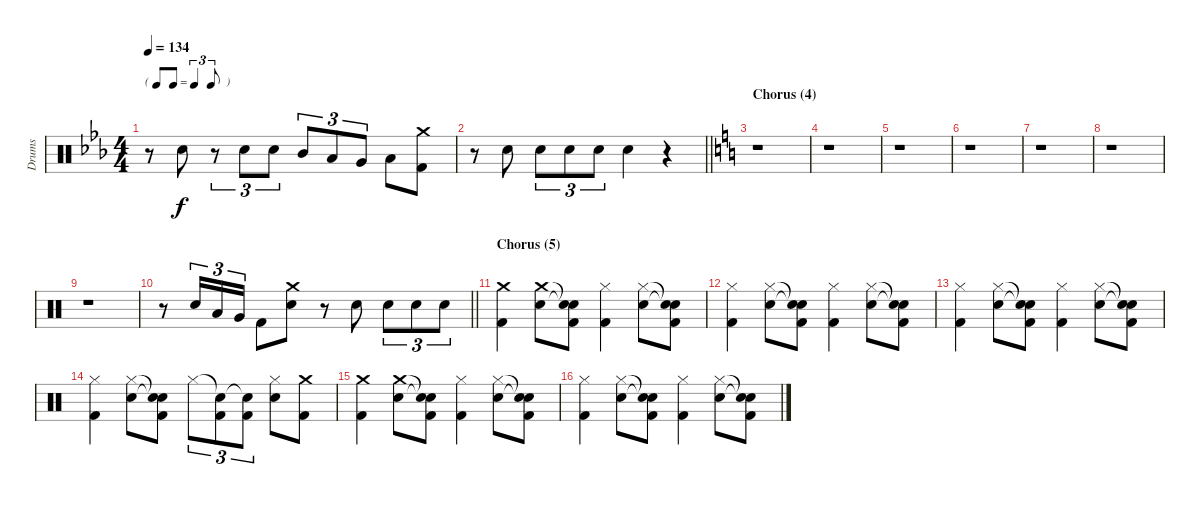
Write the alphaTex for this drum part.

\track ("Drums" "Drums") {instrument percussion}
\staff {score}
\articulation defaults
\ts (4 4)
\tf triplet8th
\tempo 134
\clef neutral
\ks eb
r.8{dy f} "Electric Snare (hit)".8 r.8{tu (3 2)} "Electric Snare (hit)".8{tu (3 2)} "Electric Snare (hit)".8{tu (3 2)} "Mid Tom (hit)".8{tu (3 2)} "Low Tom (hit)".8{tu (3 2)} "Very Low Tom (hit)".8{tu (3 2)} "Low Floor Tom (hit)".8 ("Crash medium (hit)" "Kick (hit) 2").8 |
\barLineRight lightlight
r.8 "Electric Snare (hit)".8 "Electric Snare (hit)".8{tu (3 2)} "Electric Snare (hit)".8{tu (3 2)} "Electric Snare (hit)".8{tu (3 2)} "Electric Snare (hit)".4 r.4 |
\section ("" "Chorus (4)")
\ks c
r.1 |
r.1 |
r.1 |
r.1 |
r.1 |
r.1 |
r.1 |
\barLineRight lightlight
r.8 "Electric Snare (hit)".16{tu (3 2)} "Low Tom (hit)".16{tu (3 2)} "Very Low Tom (hit)".16{tu (3 2)} "Kick (hit) 2".8 ("Crash medium (hit)" "Electric Snare (hit)").8 r.8 "Electric Snare (hit)".8 "Electric Snare (hit)".8{tu (3 2)} "Electric Snare (hit)".8{tu (3 2)} "Electric Snare (hit)".8{tu (3 2)} |
\section ("" "Chorus (5)")
("Crash medium (hit)" "Kick (hit) 2").4 ("Crash medium (hit)" "Electric Snare (hit)").8 ("Snare (hit)"{t} "Snare (hit)"{t} "Kick (hit) 2").8 ("Hi-Hat (closed)" "Kick (hit) 2").4 ("Hi-Hat (closed)" "Electric Snare (hit)").8 ("Snare (hit)"{t} "Snare (hit)"{t} "Kick (hit) 2").8 |
("Hi-Hat (closed)" "Kick (hit) 2").4 ("Hi-Hat (closed)" "Electric Snare (hit)").8 ("Snare (hit)"{t} "Snare (hit)"{t} "Kick (hit) 2").8 ("Hi-Hat (closed)" "Kick (hit) 2").4 ("Hi-Hat (closed)" "Electric Snare (hit)").8 ("Snare (hit)"{t} "Snare (hit)"{t} "Kick (hit) 2").8 |
("Hi-Hat (closed)" "Kick (hit) 2").4 ("Hi-Hat (closed)" "Electric Snare (hit)").8 ("Snare (hit)"{t} "Snare (hit)"{t} "Kick (hit) 2").8 ("Hi-Hat (closed)" "Kick (hit) 2").4 ("Hi-Hat (closed)" "Electric Snare (hit)").8 ("Snare (hit)"{t} "Snare (hit)"{t} "Kick (hit) 2").8 |
("Hi-Hat (closed)" "Kick (hit) 2").4 ("Hi-Hat (closed)" "Electric Snare (hit)").8 ("Snare (hit)"{t} "Snare (hit)"{t} "Kick (hit) 2").8 "Hi-Hat (closed)".8{tu (3 2)} ("Snare (hit)"{t} "Kick (hit) 2").8{tu (3 2)} ("Snare (hit)"{t} "Kick (hit) 2").8{tu (3 2)} ("Hi-Hat (closed)" "Electric Snare (hit)").8 ("Crash medium (hit)" "Kick (hit) 2").8 |
("Crash medium (hit)" "Kick (hit) 2").4 ("Crash medium (hit)" "Electric Snare (hit)").8 ("Snare (hit)"{t} "Snare (hit)"{t} "Kick (hit) 2").8 ("Hi-Hat (closed)" "Kick (hit) 2").4 ("Hi-Hat (closed)" "Electric Snare (hit)").8 ("Snare (hit)"{t} "Snare (hit)"{t} "Kick (hit) 2").8 |
("Hi-Hat (closed)" "Kick (hit) 2").4 ("Hi-Hat (closed)" "Electric Snare (hit)").8 ("Snare (hit)"{t} "Snare (hit)"{t} "Kick (hit) 2").8 ("Hi-Hat (closed)" "Kick (hit) 2").4 ("Hi-Hat (closed)" "Electric Snare (hit)").8 ("Snare (hit)"{t} "Snare (hit)"{t} "Kick (hit) 2").8
